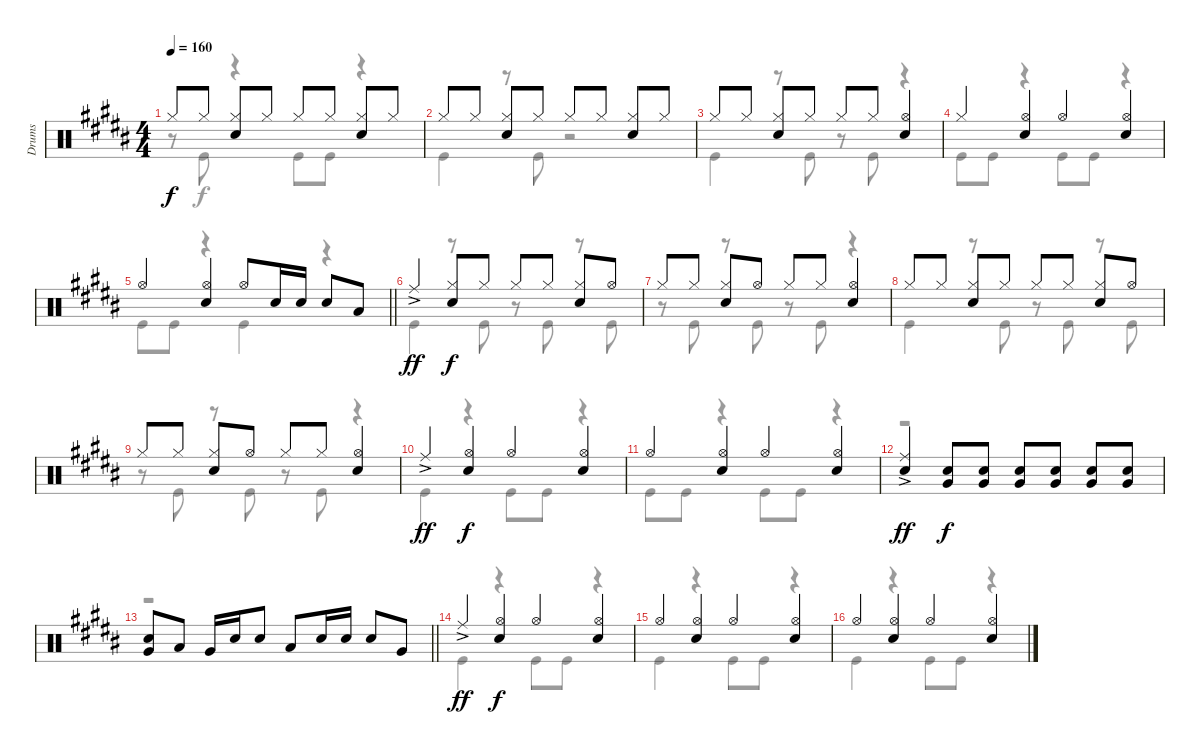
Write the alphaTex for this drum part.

\track ("Drums" "Drums") {instrument percussion}
\staff {score}
\articulation defaults
\voice
\ts (4 4)
\tempo 160
\clef neutral
\ks b "Hi-Hat (closed)".8{dy f} "Hi-Hat (closed)".8
("Hi-Hat (closed)" "Snare (hit) 2").8 "Hi-Hat (closed)".8 "Hi-Hat (closed)".8 "Hi-Hat (closed)".8 ("Hi-Hat (closed)" "Snare (hit) 2").8 "Hi-Hat (closed)".8 |
"Hi-Hat (closed)".8 "Hi-Hat (closed)".8 ("Hi-Hat (closed)" "Snare (hit) 2").8 "Hi-Hat (closed)".8 "Hi-Hat (closed)".8 "Hi-Hat (closed)".8 ("Hi-Hat (closed)" "Snare (hit) 2").8 "Hi-Hat (closed)".8 |
"Hi-Hat (closed)".8 "Hi-Hat (closed)".8 ("Hi-Hat (closed)" "Snare (hit) 2").8 "Hi-Hat (closed)".8 "Hi-Hat (closed)".8 "Hi-Hat (closed)".8 ("Hi-Hat (open)" "Snare (hit) 2").4 |
"Hi-Hat (closed)".4 ("Hi-Hat (open)" "Snare (hit) 2").4 "Hi-Hat (open)".4 ("Hi-Hat (open)" "Snare (hit) 2").4 |
\barLineRight lightlight "Hi-Hat (open)".4
("Hi-Hat (open)" "Snare (hit) 2").4 "Hi-Hat (open)".8 "Snare (hit) 2".16 "Snare (hit) 2".16 "Snare (hit) 2".8 "Low Tom (hit)".8 |
"Ride (middle)"{ac}.4{dy ff} ("Hi-Hat (closed)" "Snare (hit) 2").8{dy f} "Hi-Hat (closed)".8 "Hi-Hat (closed)".8 "Hi-Hat (closed)".8 ("Hi-Hat (closed)" "Snare (hit) 2").8 "Hi-Hat (open)".8 |
"Hi-Hat (closed)".8 "Hi-Hat (closed)".8 ("Hi-Hat (closed)" "Snare (hit) 2").8 "Hi-Hat (open)".8 "Hi-Hat (closed)".8 "Hi-Hat (closed)".8 ("Hi-Hat (open)" "Snare (hit) 2").4 |
"Hi-Hat (closed)".8 "Hi-Hat (closed)".8 ("Hi-Hat (closed)" "Snare (hit) 2").8 "Hi-Hat (closed)".8 "Hi-Hat (closed)".8 "Hi-Hat (closed)".8 ("Hi-Hat (closed)" "Snare (hit) 2").8 "Hi-Hat (open)".8 |
"Hi-Hat (closed)".8 "Hi-Hat (closed)".8 ("Hi-Hat (closed)" "Snare (hit) 2").8 "Hi-Hat (open)".8 "Hi-Hat (closed)".8 "Hi-Hat (closed)".8 ("Hi-Hat (open)" "Snare (hit) 2").4 |
"Ride (middle)"{ac}.4{dy ff} ("Hi-Hat (open)" "Snare (hit) 2").4{dy f} "Hi-Hat (open)".4 ("Hi-Hat (open)" "Snare (hit) 2").4 |
"Hi-Hat (open)".4 ("Hi-Hat (open)" "Snare (hit) 2").4 "Hi-Hat (open)".4 ("Hi-Hat (open)" "Snare (hit) 2").4 |
("Ride (middle)"{ac} "Snare (hit) 2").4{dy ff} ("Snare (hit) 2" "Very Low Tom (hit)").8{dy f} ("Snare (hit) 2" "Very Low Tom (hit)").8 ("Snare (hit) 2" "Very Low Tom (hit)").8 ("Snare (hit) 2" "Very Low Tom (hit)").8 ("Snare (hit) 2" "Very Low Tom (hit)").8 ("Snare (hit) 2" "Very Low Tom (hit)").8 |
\barLineRight lightlight
("Snare (hit) 2" "Very Low Tom (hit)").8 "Low Tom (hit)".8 "Very Low Tom (hit)".16 "Snare (hit) 2".16 "Snare (hit) 2".8 "Low Tom (hit)".8 "Snare (hit) 2".16 "Snare (hit) 2".16 "Snare (hit) 2".8 "Very Low Tom (hit)".8 |
"Ride (middle)"{ac}.4{dy ff} ("Hi-Hat (open)" "Snare (hit) 2").4{dy f} "Hi-Hat (open)".4 ("Hi-Hat (open)" "Snare (hit) 2").4 |
"Hi-Hat (open)".4 ("Hi-Hat (open)" "Snare (hit) 2").4 "Hi-Hat (open)".4 ("Hi-Hat (open)" "Snare (hit) 2").4 |
"Hi-Hat (open)".4 ("Hi-Hat (open)" "Snare (hit) 2").4 "Hi-Hat (open)".4 ("Hi-Hat (open)" "Snare (hit) 2").4
\voice
\clef neutral
\ottava regular
\simile none
\ks b
r.8{dy f} "Kick (hit)".8 r.4 "Kick (hit)".8 "Kick (hit)".8 r.4 |
"Kick (hit)".4 r.8 "Kick (hit)".8 r.2 |
"Kick (hit)".4 r.8 "Kick (hit)".8 r.8 "Kick (hit)".8 r.4 |
"Kick (hit)".8 "Kick (hit)".8 r.4 "Kick (hit)".8 "Kick (hit)".8 r.4 |
\barLineRight lightlight "Kick (hit)".8 "Kick (hit)".8
r.4 "Kick (hit)".4 r.4 |
"Kick (hit)".4 r.8 "Kick (hit)".8 r.8 "Kick (hit)".8 r.8 "Kick (hit)".8 |
r.8 "Kick (hit)".8 r.8 "Kick (hit)".8 r.8 "Kick (hit)".8 r.4 |
"Kick (hit)".4 r.8 "Kick (hit)".8 r.8 "Kick (hit)".8 r.8 "Kick (hit)".8 |
r.8 "Kick (hit)".8 r.8 "Kick (hit)".8 r.8 "Kick (hit)".8 r.4 |
"Kick (hit)".4 r.4 "Kick (hit)".8 "Kick (hit)".8 r.4 |
"Kick (hit)".8 "Kick (hit)".8 r.4 "Kick (hit)".8 "Kick (hit)".8 r.4 |
r.1 |
\barLineRight lightlight
r.1 |
"Kick (hit)".4 r.4 "Kick (hit)".8 "Kick (hit)".8 r.4 |
"Kick (hit)".4 r.4 "Kick (hit)".8 "Kick (hit)".8 r.4 |
"Kick (hit)".4 r.4 "Kick (hit)".8 "Kick (hit)".8 r.4
